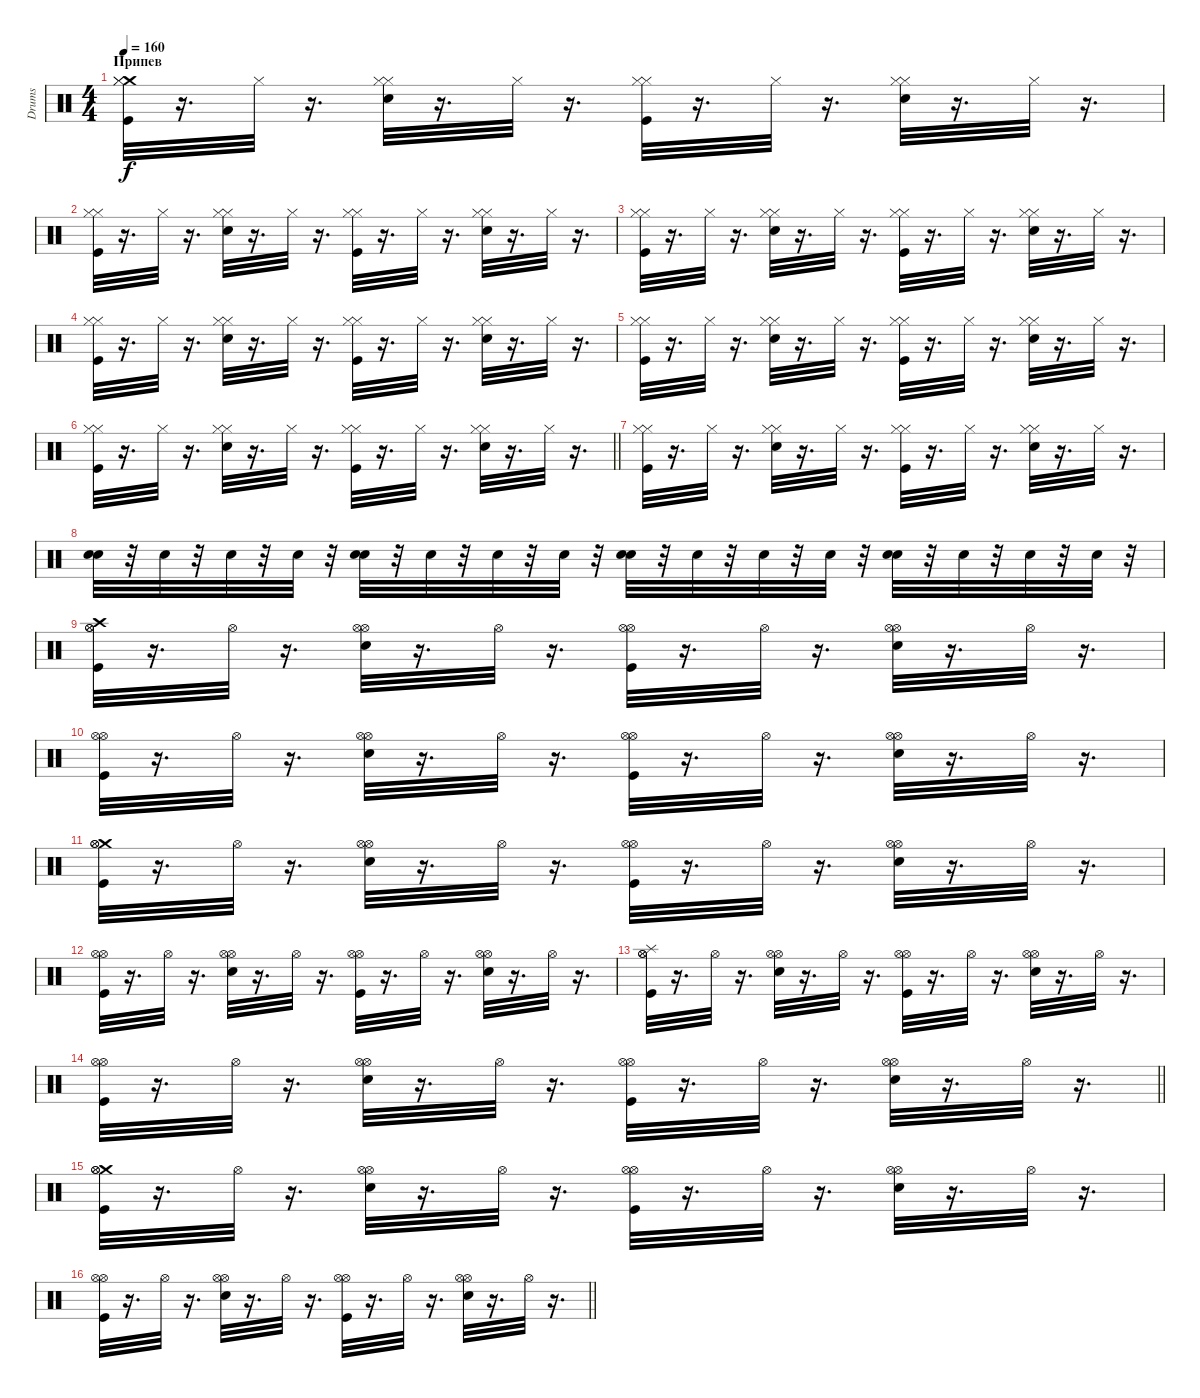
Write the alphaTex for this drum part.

\track ("Drums" "Drums") {instrument percussion}
\staff {score}
\articulation defaults
\ts (4 4)
\section ("" "Припев")
\tempo 160
\clef neutral
\ks c
("Crash medium (hit)" "Hi-Hat (closed)" "Hi-Hat (closed)" "Kick (hit)").32{dy f} r.16{d} "Hi-Hat (closed)".32 r.16{d} ("Hi-Hat (closed)" "Hi-Hat (closed)" "Snare (hit) 2").32 r.16{d} "Hi-Hat (closed)".32 r.16{d} ("Hi-Hat (closed)" "Hi-Hat (closed)" "Kick (hit)").32 r.16{d} "Hi-Hat (closed)".32 r.16{d} ("Hi-Hat (closed)" "Hi-Hat (closed)" "Snare (hit) 2").32 r.16{d} "Hi-Hat (closed)".32 r.16{d} |
("Hi-Hat (closed)" "Hi-Hat (closed)" "Kick (hit)").32 r.16{d} "Hi-Hat (closed)".32 r.16{d} ("Hi-Hat (closed)" "Hi-Hat (closed)" "Snare (hit) 2").32 r.16{d} "Hi-Hat (closed)".32 r.16{d} ("Hi-Hat (closed)" "Hi-Hat (closed)" "Kick (hit)").32 r.16{d} "Hi-Hat (closed)".32 r.16{d} ("Hi-Hat (closed)" "Hi-Hat (closed)" "Snare (hit) 2").32 r.16{d} "Hi-Hat (closed)".32 r.16{d} |
("Hi-Hat (closed)" "Hi-Hat (closed)" "Kick (hit)").32 r.16{d} "Hi-Hat (closed)".32 r.16{d} ("Hi-Hat (closed)" "Hi-Hat (closed)" "Snare (hit) 2").32 r.16{d} "Hi-Hat (closed)".32 r.16{d} ("Hi-Hat (closed)" "Hi-Hat (closed)" "Kick (hit)").32 r.16{d} "Hi-Hat (closed)".32 r.16{d} ("Hi-Hat (closed)" "Hi-Hat (closed)" "Snare (hit) 2").32 r.16{d} "Hi-Hat (closed)".32 r.16{d} |
("Hi-Hat (closed)" "Hi-Hat (closed)" "Kick (hit)").32 r.16{d} "Hi-Hat (closed)".32 r.16{d} ("Hi-Hat (closed)" "Hi-Hat (closed)" "Snare (hit) 2").32 r.16{d} "Hi-Hat (closed)".32 r.16{d} ("Hi-Hat (closed)" "Hi-Hat (closed)" "Kick (hit)").32 r.16{d} "Hi-Hat (closed)".32 r.16{d} ("Hi-Hat (closed)" "Hi-Hat (closed)" "Snare (hit) 2").32 r.16{d} "Hi-Hat (closed)".32 r.16{d} |
("Hi-Hat (closed)" "Hi-Hat (closed)" "Kick (hit)").32 r.16{d} "Hi-Hat (closed)".32 r.16{d} ("Hi-Hat (closed)" "Hi-Hat (closed)" "Snare (hit) 2").32 r.16{d} "Hi-Hat (closed)".32 r.16{d} ("Hi-Hat (closed)" "Hi-Hat (closed)" "Kick (hit)").32 r.16{d} "Hi-Hat (closed)".32 r.16{d} ("Hi-Hat (closed)" "Hi-Hat (closed)" "Snare (hit) 2").32 r.16{d} "Hi-Hat (closed)".32 r.16{d} |
\barLineRight lightlight
("Hi-Hat (closed)" "Hi-Hat (closed)" "Kick (hit)").32 r.16{d} "Hi-Hat (closed)".32 r.16{d} ("Hi-Hat (closed)" "Hi-Hat (closed)" "Snare (hit) 2").32 r.16{d} "Hi-Hat (closed)".32 r.16{d} ("Hi-Hat (closed)" "Hi-Hat (closed)" "Kick (hit)").32 r.16{d} "Hi-Hat (closed)".32 r.16{d} ("Hi-Hat (closed)" "Hi-Hat (closed)" "Snare (hit) 2").32 r.16{d} "Hi-Hat (closed)".32 r.16{d} |
("Hi-Hat (closed)" "Hi-Hat (closed)" "Kick (hit)").32 r.16{d} "Hi-Hat (closed)".32 r.16{d} ("Hi-Hat (closed)" "Hi-Hat (closed)" "Snare (hit) 2").32 r.16{d} "Hi-Hat (closed)".32 r.16{d} ("Hi-Hat (closed)" "Hi-Hat (closed)" "Kick (hit)").32 r.16{d} "Hi-Hat (closed)".32 r.16{d} ("Hi-Hat (closed)" "Hi-Hat (closed)" "Snare (hit) 2").32 r.16{d} "Hi-Hat (closed)".32 r.16{d} |
("Snare (hit) 2" "Snare (hit) 2").32 r.32 "Snare (hit) 2".32 r.32 "Snare (hit) 2".32 r.32 "Snare (hit) 2".32 r.32 ("Snare (hit) 2" "Snare (hit) 2").32 r.32 "Snare (hit) 2".32 r.32 "Snare (hit) 2".32 r.32 "Snare (hit) 2".32 r.32 ("Snare (hit) 2" "Snare (hit) 2").32 r.32 "Snare (hit) 2".32 r.32 "Snare (hit) 2".32 r.32 "Snare (hit) 2".32 r.32 ("Snare (hit) 2" "Snare (hit) 2").32 r.32 "Snare (hit) 2".32 r.32 "Snare (hit) 2".32 r.32 "Snare (hit) 2".32 r.32 |
("Crash high (hit)" "Kick (hit)" "Hi-Hat (open)" "Hi-Hat (open)").32 r.16{d} "Hi-Hat (open)".32 r.16{d} ("Hi-Hat (open)" "Snare (hit) 2" "Hi-Hat (open)").32 r.16{d} "Hi-Hat (open)".32 r.16{d} ("Hi-Hat (open)" "Kick (hit)" "Hi-Hat (open)").32 r.16{d} "Hi-Hat (open)".32 r.16{d} ("Hi-Hat (open)" "Hi-Hat (open)" "Snare (hit) 2").32 r.16{d} "Hi-Hat (open)".32 r.16{d} |
("Hi-Hat (open)" "Hi-Hat (open)" "Kick (hit)").32 r.16{d} "Hi-Hat (open)".32 r.16{d} ("Snare (hit) 2" "Hi-Hat (open)" "Hi-Hat (open)").32 r.16{d} "Hi-Hat (open)".32 r.16{d} ("Kick (hit)" "Hi-Hat (open)" "Hi-Hat (open)").32 r.16{d} "Hi-Hat (open)".32 r.16{d} ("Hi-Hat (open)" "Hi-Hat (open)" "Snare (hit) 2").32 r.16{d} "Hi-Hat (open)".32 r.16{d} |
("Crash medium (hit)" "Hi-Hat (open)" "Kick (hit)" "Hi-Hat (open)").32 r.16{d} "Hi-Hat (open)".32 r.16{d} ("Hi-Hat (open)" "Snare (hit) 2" "Hi-Hat (open)").32 r.16{d} "Hi-Hat (open)".32 r.16{d} ("Kick (hit)" "Hi-Hat (open)" "Hi-Hat (open)").32 r.16{d} "Hi-Hat (open)".32 r.16{d} ("Hi-Hat (open)" "Hi-Hat (open)" "Snare (hit) 2").32 r.16{d} "Hi-Hat (open)".32 r.16{d} |
("Kick (hit)" "Hi-Hat (open)" "Hi-Hat (open)").32 r.16{d} "Hi-Hat (open)".32 r.16{d} ("Snare (hit) 2" "Hi-Hat (open)" "Hi-Hat (open)").32 r.16{d} "Hi-Hat (open)".32 r.16{d} ("Kick (hit)" "Hi-Hat (open)" "Hi-Hat (open)").32 r.16{d} "Hi-Hat (open)".32 r.16{d} ("Hi-Hat (open)" "Snare (hit) 2" "Hi-Hat (open)").32 r.16{d} "Hi-Hat (open)".32 r.16{d} |
("Splash (hit)" "Hi-Hat (open)" "Kick (hit)" "Hi-Hat (open)").32 r.16{d} "Hi-Hat (open)".32 r.16{d} ("Hi-Hat (open)" "Hi-Hat (open)" "Snare (hit) 2").32 r.16{d} "Hi-Hat (open)".32 r.16{d} ("Hi-Hat (open)" "Hi-Hat (open)" "Kick (hit)").32 r.16{d} "Hi-Hat (open)".32 r.16{d} ("Snare (hit) 2" "Hi-Hat (open)" "Hi-Hat (open)").32 r.16{d} "Hi-Hat (open)".32 r.16{d} |
\barLineRight lightlight
("Kick (hit)" "Hi-Hat (open)" "Hi-Hat (open)").32 r.16{d} "Hi-Hat (open)".32 r.16{d} ("Snare (hit) 2" "Hi-Hat (open)" "Hi-Hat (open)").32 r.16{d} "Hi-Hat (open)".32 r.16{d} ("Hi-Hat (open)" "Kick (hit)" "Hi-Hat (open)").32 r.16{d} "Hi-Hat (open)".32 r.16{d} ("Hi-Hat (open)" "Snare (hit) 2" "Hi-Hat (open)").32 r.16{d} "Hi-Hat (open)".32 r.16{d} |
("Crash medium (hit)" "Kick (hit)" "Hi-Hat (open)" "Hi-Hat (open)").32 r.16{d} "Hi-Hat (open)".32 r.16{d} ("Hi-Hat (open)" "Hi-Hat (open)" "Snare (hit) 2").32 r.16{d} "Hi-Hat (open)".32 r.16{d} ("Kick (hit)" "Hi-Hat (open)" "Hi-Hat (open)").32 r.16{d} "Hi-Hat (open)".32 r.16{d} ("Snare (hit) 2" "Hi-Hat (open)" "Hi-Hat (open)").32 r.16{d} "Hi-Hat (open)".32 r.16{d} |
\barLineRight lightlight
("Kick (hit)" "Hi-Hat (open)" "Hi-Hat (open)").32 r.16{d} "Hi-Hat (open)".32 r.16{d} ("Hi-Hat (open)" "Snare (hit) 2" "Hi-Hat (open)").32 r.16{d} "Hi-Hat (open)".32 r.16{d} ("Kick (hit)" "Hi-Hat (open)" "Hi-Hat (open)").32 r.16{d} "Hi-Hat (open)".32 r.16{d} ("Snare (hit) 2" "Hi-Hat (open)" "Hi-Hat (open)").32 r.16{d} "Hi-Hat (open)".32 r.16{d}
